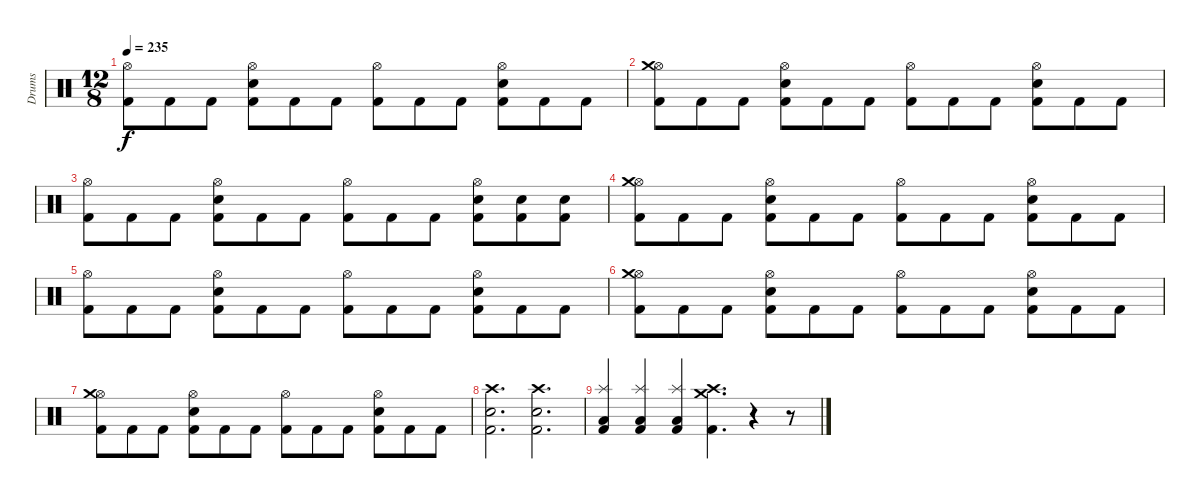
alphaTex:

\track ("Drums" "Drums") {instrument percussion}
\staff {score}
\articulation defaults
\ts (12 8)
\tempo 235
\clef neutral
\ks c
("Hi-Hat (open)" "Kick (hit) 2").8{dy f} "Kick (hit) 2".8 "Kick (hit) 2".8 ("Snare (hit) 2" "Kick (hit) 2" "Hi-Hat (open)").8 "Kick (hit) 2".8 "Kick (hit) 2".8 ("Hi-Hat (open)" "Kick (hit) 2").8 "Kick (hit) 2".8 "Kick (hit) 2".8 ("Hi-Hat (open)" "Kick (hit) 2" "Snare (hit) 2").8 "Kick (hit) 2".8 "Kick (hit) 2".8 |
("Hi-Hat (open)" "Kick (hit) 2" "Crash medium (hit)").8 "Kick (hit) 2".8 "Kick (hit) 2".8 ("Kick (hit) 2" "Snare (hit) 2" "Hi-Hat (open)").8 "Kick (hit) 2".8 "Kick (hit) 2".8 ("Kick (hit) 2" "Hi-Hat (open)").8 "Kick (hit) 2".8 "Kick (hit) 2".8 ("Snare (hit) 2" "Kick (hit) 2" "Hi-Hat (open)").8 "Kick (hit) 2".8 "Kick (hit) 2".8 |
("Kick (hit) 2" "Hi-Hat (open)").8 "Kick (hit) 2".8 "Kick (hit) 2".8 ("Hi-Hat (open)" "Kick (hit) 2" "Snare (hit) 2").8 "Kick (hit) 2".8 "Kick (hit) 2".8 ("Kick (hit) 2" "Hi-Hat (open)").8 "Kick (hit) 2".8 "Kick (hit) 2".8 ("Kick (hit) 2" "Hi-Hat (open)" "Snare (hit) 2").8 ("Kick (hit) 2" "Snare (hit) 2").8 ("Kick (hit) 2" "Snare (hit) 2").8 |
("Kick (hit) 2" "Hi-Hat (open)" "Crash medium (hit)").8 "Kick (hit) 2".8 "Kick (hit) 2".8 ("Snare (hit) 2" "Hi-Hat (open)" "Kick (hit) 2").8 "Kick (hit) 2".8 "Kick (hit) 2".8 ("Hi-Hat (open)" "Kick (hit) 2").8 "Kick (hit) 2".8 "Kick (hit) 2".8 ("Kick (hit) 2" "Snare (hit) 2" "Hi-Hat (open)").8 "Kick (hit) 2".8 "Kick (hit) 2".8 |
("Hi-Hat (open)" "Kick (hit) 2").8 "Kick (hit) 2".8 "Kick (hit) 2".8 ("Snare (hit) 2" "Kick (hit) 2" "Hi-Hat (open)").8 "Kick (hit) 2".8 "Kick (hit) 2".8 ("Hi-Hat (open)" "Kick (hit) 2").8 "Kick (hit) 2".8 "Kick (hit) 2".8 ("Hi-Hat (open)" "Kick (hit) 2" "Snare (hit) 2").8 "Kick (hit) 2".8 "Kick (hit) 2".8 |
("Hi-Hat (open)" "Kick (hit) 2" "Crash medium (hit)").8 "Kick (hit) 2".8 "Kick (hit) 2".8 ("Kick (hit) 2" "Snare (hit) 2" "Hi-Hat (open)").8 "Kick (hit) 2".8 "Kick (hit) 2".8 ("Kick (hit) 2" "Hi-Hat (open)").8 "Kick (hit) 2".8 "Kick (hit) 2".8 ("Snare (hit) 2" "Kick (hit) 2" "Hi-Hat (open)").8 "Kick (hit) 2".8 "Kick (hit) 2".8 |
("Hi-Hat (open)" "Kick (hit) 2" "Crash medium (hit)").8 "Kick (hit) 2".8 "Kick (hit) 2".8 ("Kick (hit) 2" "Snare (hit) 2" "Hi-Hat (open)").8 "Kick (hit) 2".8 "Kick (hit) 2".8 ("Kick (hit) 2" "Hi-Hat (open)").8 "Kick (hit) 2".8 "Kick (hit) 2".8 ("Snare (hit) 2" "Kick (hit) 2" "Hi-Hat (open)").8 "Kick (hit) 2".8 "Kick (hit) 2".8 |
("Crash high (hit)" "Snare (hit) 2" "Kick (hit) 2").2{d} ("Crash high (hit)" "Snare (hit) 2" "Kick (hit) 2").2{d} |
("Splash (hit)" "Low Tom (hit)" "Kick (hit) 2").4 ("Splash (hit)" "Low Tom (hit)" "Kick (hit) 2").4 ("Splash (hit)" "Low Tom (hit)" "Kick (hit) 2").4 ("Crash medium (hit)" "Crash high (hit)" "Kick (hit) 2").4{d} r.4 r.8
